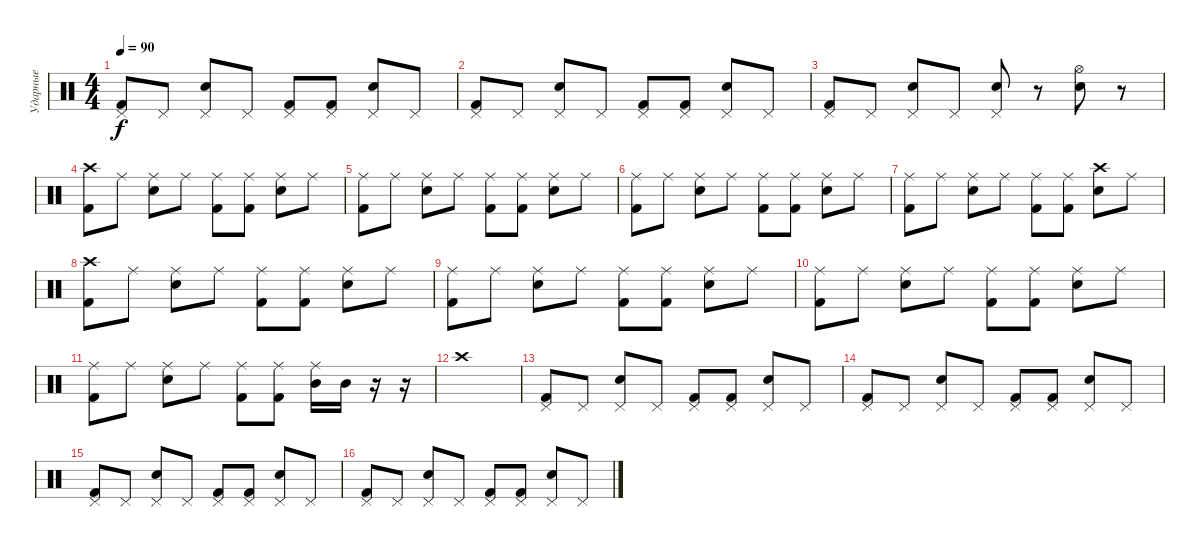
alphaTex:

\track ("Ударные" "Ударные") {instrument percussion}
\staff {score}
\articulation defaults
\ts (4 4)
\tempo 90
\clef neutral
\ks c
("Pedal Hi-Hat (hit)" "Kick (hit) 2").8{dy f} "Pedal Hi-Hat (hit)".8 ("Pedal Hi-Hat (hit)" "Snare (hit) 2").8 "Pedal Hi-Hat (hit)".8 ("Pedal Hi-Hat (hit)" "Kick (hit) 2").8 ("Pedal Hi-Hat (hit)" "Kick (hit) 2").8 ("Pedal Hi-Hat (hit)" "Snare (hit) 2").8 "Pedal Hi-Hat (hit)".8 |
("Pedal Hi-Hat (hit)" "Kick (hit) 2").8 "Pedal Hi-Hat (hit)".8 ("Pedal Hi-Hat (hit)" "Snare (hit) 2").8 "Pedal Hi-Hat (hit)".8 ("Pedal Hi-Hat (hit)" "Kick (hit) 2").8 ("Pedal Hi-Hat (hit)" "Kick (hit) 2").8 ("Pedal Hi-Hat (hit)" "Snare (hit) 2").8 "Pedal Hi-Hat (hit)".8 |
("Pedal Hi-Hat (hit)" "Kick (hit) 2").8 "Pedal Hi-Hat (hit)".8 ("Pedal Hi-Hat (hit)" "Snare (hit) 2").8 "Pedal Hi-Hat (hit)".8 ("Pedal Hi-Hat (hit)" "Snare (hit) 2").8 r.8 ("Hi-Hat (open)" "Snare (hit) 2").8 r.8 |
("Crash high (hit)" "Kick (hit) 2").8 "Ride (middle)".8 ("Ride (middle)" "Snare (hit) 2").8 "Ride (middle)".8 ("Ride (middle)" "Kick (hit) 2").8 ("Ride (middle)" "Kick (hit) 2").8 ("Ride (middle)" "Snare (hit) 2").8 "Ride (middle)".8 |
("Ride (middle)" "Kick (hit) 2").8 "Ride (middle)".8 ("Ride (middle)" "Snare (hit) 2").8 "Ride (middle)".8 ("Ride (middle)" "Kick (hit) 2").8 ("Ride (middle)" "Kick (hit) 2").8 ("Ride (middle)" "Snare (hit) 2").8 "Ride (middle)".8 |
("Ride (middle)" "Kick (hit) 2").8 "Ride (middle)".8 ("Ride (middle)" "Snare (hit) 2").8 "Ride (middle)".8 ("Ride (middle)" "Kick (hit) 2").8 ("Ride (middle)" "Kick (hit) 2").8 ("Ride (middle)" "Snare (hit) 2").8 "Ride (middle)".8 |
("Ride (middle)" "Kick (hit) 2").8 "Ride (middle)".8 ("Ride (middle)" "Snare (hit) 2").8 "Ride (middle)".8 ("Ride (middle)" "Kick (hit) 2").8 ("Ride (middle)" "Kick (hit) 2").8 ("Crash high (hit)" "Snare (hit) 2").8 "Ride (middle)".8 |
("Crash high (hit)" "Kick (hit) 2").8 "Ride (middle)".8 ("Ride (middle)" "Snare (hit) 2").8 "Ride (middle)".8 ("Ride (middle)" "Kick (hit) 2").8 ("Ride (middle)" "Kick (hit) 2").8 ("Ride (middle)" "Snare (hit) 2").8 "Ride (middle)".8 |
("Ride (middle)" "Kick (hit) 2").8 "Ride (middle)".8 ("Ride (middle)" "Snare (hit) 2").8 "Ride (middle)".8 ("Ride (middle)" "Kick (hit) 2").8 ("Ride (middle)" "Kick (hit) 2").8 ("Ride (middle)" "Snare (hit) 2").8 "Ride (middle)".8 |
("Ride (middle)" "Kick (hit) 2").8 "Ride (middle)".8 ("Ride (middle)" "Snare (hit) 2").8 "Ride (middle)".8 ("Ride (middle)" "Kick (hit) 2").8 ("Ride (middle)" "Kick (hit) 2").8 ("Ride (middle)" "Snare (hit) 2").8 "Ride (middle)".8 |
("Ride (middle)" "Kick (hit) 2").8 "Ride (middle)".8 ("Ride (middle)" "Snare (hit) 2").8 "Ride (middle)".8 ("Ride (middle)" "Kick (hit) 2").8 ("Ride (middle)" "Kick (hit) 2").8 ("Ride (middle)" "Mid Tom (hit)").16 "Mid Tom (hit)".16 r.16 r.16 |
"Crash high (hit)".1 |
("Pedal Hi-Hat (hit)" "Kick (hit) 2").8 "Pedal Hi-Hat (hit)".8 ("Pedal Hi-Hat (hit)" "Snare (hit) 2").8 "Pedal Hi-Hat (hit)".8 ("Pedal Hi-Hat (hit)" "Kick (hit) 2").8 ("Pedal Hi-Hat (hit)" "Kick (hit) 2").8 ("Pedal Hi-Hat (hit)" "Snare (hit) 2").8 "Pedal Hi-Hat (hit)".8 |
("Pedal Hi-Hat (hit)" "Kick (hit) 2").8 "Pedal Hi-Hat (hit)".8 ("Pedal Hi-Hat (hit)" "Snare (hit) 2").8 "Pedal Hi-Hat (hit)".8 ("Pedal Hi-Hat (hit)" "Kick (hit) 2").8 ("Pedal Hi-Hat (hit)" "Kick (hit) 2").8 ("Pedal Hi-Hat (hit)" "Snare (hit) 2").8 "Pedal Hi-Hat (hit)".8 |
("Pedal Hi-Hat (hit)" "Kick (hit) 2").8 "Pedal Hi-Hat (hit)".8 ("Pedal Hi-Hat (hit)" "Snare (hit) 2").8 "Pedal Hi-Hat (hit)".8 ("Pedal Hi-Hat (hit)" "Kick (hit) 2").8 ("Pedal Hi-Hat (hit)" "Kick (hit) 2").8 ("Pedal Hi-Hat (hit)" "Snare (hit) 2").8 "Pedal Hi-Hat (hit)".8 |
("Pedal Hi-Hat (hit)" "Kick (hit) 2").8 "Pedal Hi-Hat (hit)".8 ("Pedal Hi-Hat (hit)" "Snare (hit) 2").8 "Pedal Hi-Hat (hit)".8 ("Pedal Hi-Hat (hit)" "Kick (hit) 2").8 ("Pedal Hi-Hat (hit)" "Kick (hit) 2").8 ("Pedal Hi-Hat (hit)" "Snare (hit) 2").8 "Pedal Hi-Hat (hit)".8
